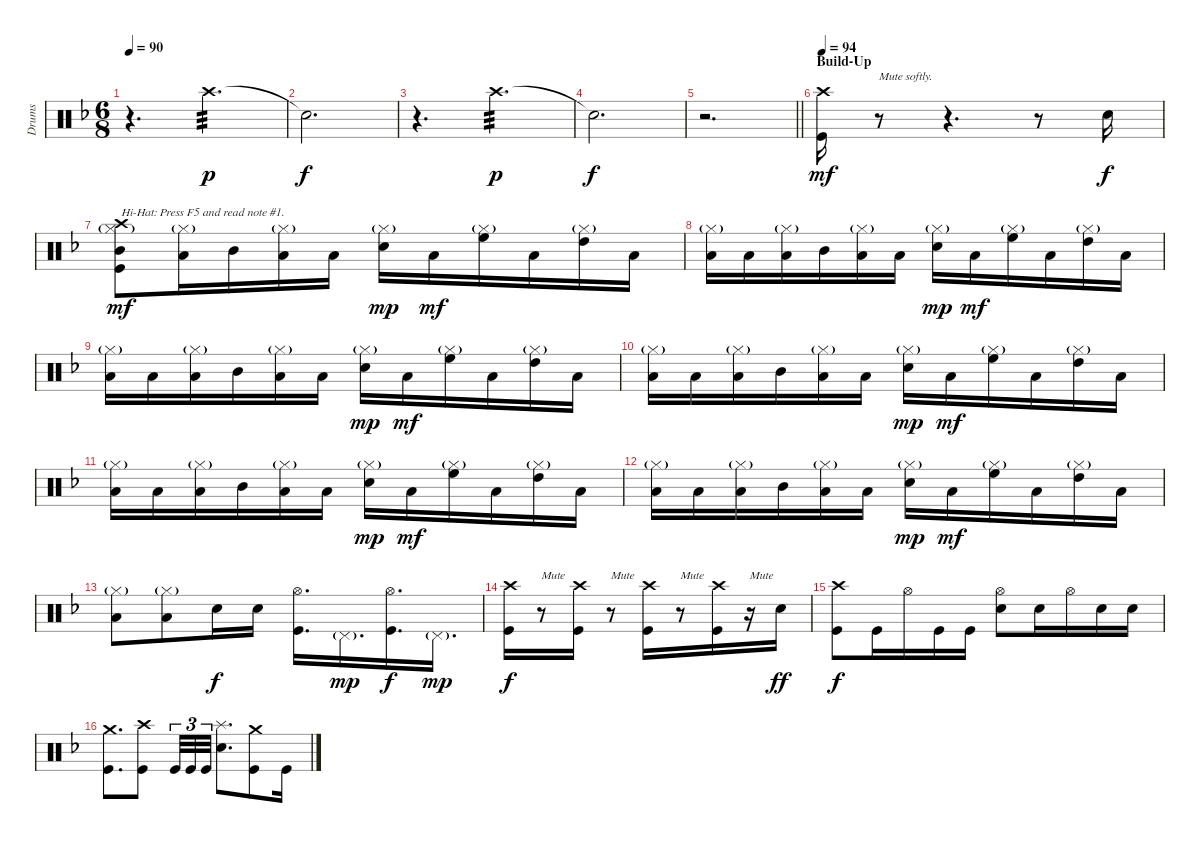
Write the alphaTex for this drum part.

\track ("Drums" "Drums") {instrument percussion bank 10}
\staff {score}
\articulation defaults
\ts (6 8)
\tempo 90
\clef neutral
\ks dminor
r.4{d dy p volume 5} "Crash high (hit)".4{d tp 3 volume 13} |
"Snare (hit)"{t}.2{d dy f} |
r.4{d volume 5} "Crash high (hit)".4{d tp 3 dy p volume 13} |
"Snare (hit)"{t}.2{d dy f} |
\barLineRight lightlight
r.2{d} |
\section ("" "Build-Up")
\tempo 94
("Crash high (hit)" "Kick (hit)").16{dy mf} r.8{txt "Mute softly."} r.4{d} r.8 "Electric Snare (hit)".16{dy f} |
("Crash high (hit)" "Hi-Hat (closed)"{g} "Mid Tom (hit)" "Kick (hit)").8{txt "Hi-Hat: Press F5 and read note #1." dy mf} ("Hi-Hat (closed)"{g} "Low Floor Tom (hit)").16 "Mid Tom (hit)".16 ("Hi-Hat (closed)"{g} "Low Tom (hit)").16 "Low Floor Tom (hit)".16 ("Hi-Hat (closed)"{g} "Electric Snare (hit)").16{dy mp} "Low Floor Tom (hit)".16{dy mf} ("Hi-Hat (closed)"{g} "High Floor Tom (hit)").16 "Low Floor Tom (hit)".16 ("Hi-Hat (closed)"{g} "High Tom (hit)").16 "Low Floor Tom (hit)".16 |
("Hi-Hat (closed)"{g} "Low Floor Tom (hit)").16 "Low Tom (hit)".16 ("Hi-Hat (closed)"{g} "Low Floor Tom (hit)").16 "Mid Tom (hit)".16 ("Hi-Hat (closed)"{g} "Low Tom (hit)").16 "Low Floor Tom (hit)".16 ("Hi-Hat (closed)"{g} "Electric Snare (hit)").16{dy mp} "Low Floor Tom (hit)".16{dy mf} ("Hi-Hat (closed)"{g} "High Floor Tom (hit)").16 "Low Floor Tom (hit)".16 ("Hi-Hat (closed)"{g} "High Tom (hit)").16 "Low Floor Tom (hit)".16 |
("Hi-Hat (closed)"{g} "Low Floor Tom (hit)").16 "Low Tom (hit)".16 ("Hi-Hat (closed)"{g} "Low Floor Tom (hit)").16 "Mid Tom (hit)".16 ("Hi-Hat (closed)"{g} "Low Tom (hit)").16 "Low Floor Tom (hit)".16 ("Hi-Hat (closed)"{g} "Electric Snare (hit)").16{dy mp} "Low Floor Tom (hit)".16{dy mf} ("Hi-Hat (closed)"{g} "High Floor Tom (hit)").16 "Low Floor Tom (hit)".16 ("Hi-Hat (closed)"{g} "High Tom (hit)").16 "Low Floor Tom (hit)".16 |
("Hi-Hat (closed)"{g} "Low Floor Tom (hit)").16 "Low Tom (hit)".16 ("Hi-Hat (closed)"{g} "Low Floor Tom (hit)").16 "Mid Tom (hit)".16 ("Hi-Hat (closed)"{g} "Low Tom (hit)").16 "Low Floor Tom (hit)".16 ("Hi-Hat (closed)"{g} "Electric Snare (hit)").16{dy mp} "Low Floor Tom (hit)".16{dy mf} ("Hi-Hat (closed)"{g} "High Floor Tom (hit)").16 "Low Floor Tom (hit)".16 ("Hi-Hat (closed)"{g} "High Tom (hit)").16 "Low Floor Tom (hit)".16 |
("Hi-Hat (closed)"{g} "Low Floor Tom (hit)").16 "Low Tom (hit)".16 ("Hi-Hat (closed)"{g} "Low Floor Tom (hit)").16 "Mid Tom (hit)".16 ("Hi-Hat (closed)"{g} "Low Tom (hit)").16 "Low Floor Tom (hit)".16 ("Hi-Hat (closed)"{g} "Electric Snare (hit)").16{dy mp} "Low Floor Tom (hit)".16{dy mf} ("Hi-Hat (closed)"{g} "High Floor Tom (hit)").16 "Low Floor Tom (hit)".16 ("Hi-Hat (closed)"{g} "High Tom (hit)").16 "Low Floor Tom (hit)".16 |
("Hi-Hat (closed)"{g} "Low Floor Tom (hit)").16 "Low Tom (hit)".16 ("Hi-Hat (closed)"{g} "Low Floor Tom (hit)").16 "Mid Tom (hit)".16 ("Hi-Hat (closed)"{g} "Low Tom (hit)").16 "Low Floor Tom (hit)".16 ("Hi-Hat (closed)"{g} "Electric Snare (hit)").16{dy mp} "Low Floor Tom (hit)".16{dy mf} ("Hi-Hat (closed)"{g} "High Floor Tom (hit)").16 "Low Floor Tom (hit)".16 ("Hi-Hat (closed)"{g} "High Tom (hit)").16 "Low Floor Tom (hit)".16 |
("Hi-Hat (closed)"{g} "Low Floor Tom (hit)").8 ("Hi-Hat (closed)"{g} "Low Floor Tom (hit)").8 "Electric Snare (hit)".16{dy f} "Electric Snare (hit)".16 ("Hi-Hat (open)" "Kick (hit)").16{d} "Pedal Hi-Hat (hit)"{g}.16{d dy mp} ("Hi-Hat (open)" "Kick (hit)").16{d dy f} "Pedal Hi-Hat (hit)"{g}.16{d dy mp} |
("Crash high (hit)" "Kick (hit)").16{dy f} r.8{txt "Mute"} ("Crash high (hit)" "Kick (hit)").16 r.8{txt "Mute"} ("Crash high (hit)" "Kick (hit)").16 r.8{txt "Mute"} ("Crash high (hit)" "Kick (hit)").16 r.16{txt "Mute"} "Electric Snare (hit)".16{dy ff} |
("Crash high (hit)" "Kick (hit)").8{dy f} "Kick (hit)".16 "Hi-Hat (open)".16 "Kick (hit)".16 "Kick (hit)".16 ("Hi-Hat (open)" "Electric Snare (hit)").8 "Electric Snare (hit)".16 "Hi-Hat (open)".16 "Electric Snare (hit)".16 "Electric Snare (hit)".16 |
("Crash medium (hit)" "Kick (hit)").8{d} ("Crash high (hit)" "Kick (hit)").8 "Kick (hit)".32{tu (3 2)} "Kick (hit)".32{tu (3 2)} "Kick (hit)".32{tu (3 2)} ("Splash (hit)" "Electric Snare (hit)").8{d} ("Crash medium (hit)" "Kick (hit)").8 "Kick (hit)".16
